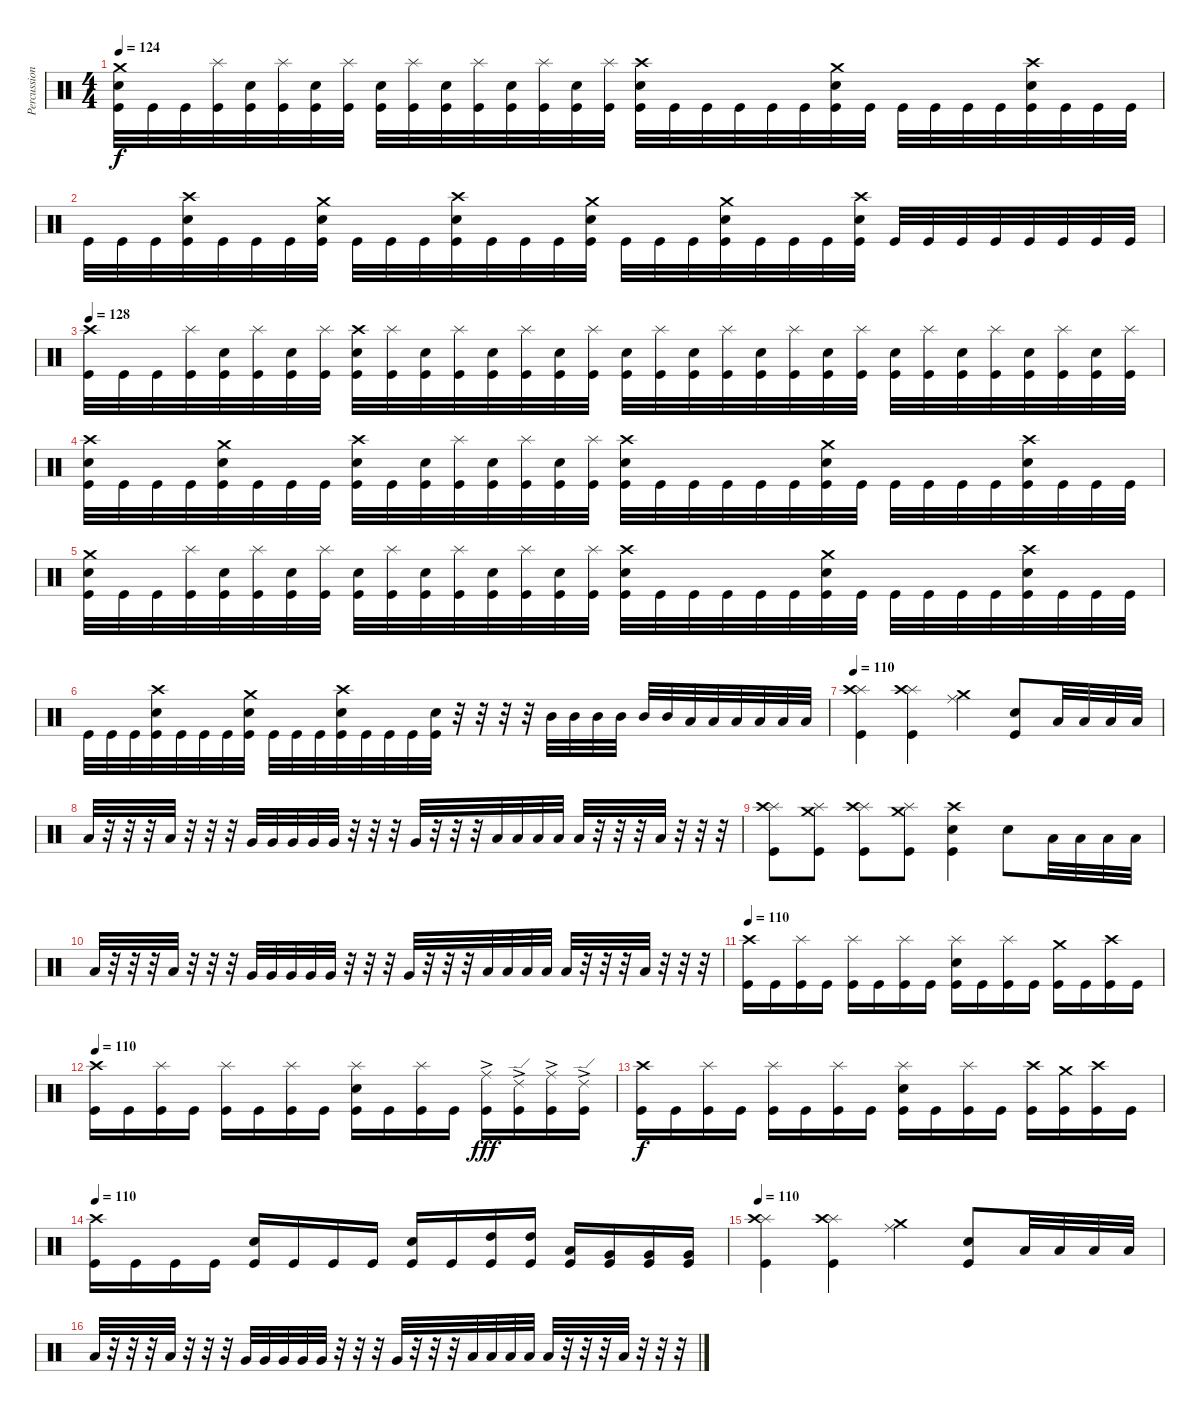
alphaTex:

\track ("Percussion" "Percussion") {instrument percussion}
\staff {score}
\articulation defaults
\ts (4 4)
\tempo 124
\clef neutral
\ks c
("Crash medium (hit)" "Electric Snare (hit)" "Kick (hit)").32{dy f} "Kick (hit)".32 "Kick (hit)".32 ("Splash (hit)" "Kick (hit)").32 ("Electric Snare (hit)" "Kick (hit)").32 ("Splash (hit)" "Kick (hit)").32 ("Electric Snare (hit)" "Kick (hit)").32 ("Splash (hit)" "Kick (hit)").32 ("Electric Snare (hit)" "Kick (hit)").32 ("Splash (hit)" "Kick (hit)").32 ("Electric Snare (hit)" "Kick (hit)").32 ("Splash (hit)" "Kick (hit)").32 ("Electric Snare (hit)" "Kick (hit)").32 ("Splash (hit)" "Kick (hit)").32 ("Electric Snare (hit)" "Kick (hit)").32 ("Splash (hit)" "Kick (hit)").32 ("Crash high (hit)" "Electric Snare (hit)" "Kick (hit)").32 "Kick (hit)".32 "Kick (hit)".32 "Kick (hit)".32 "Kick (hit)".32 "Kick (hit)".32 ("Crash medium (hit)" "Electric Snare (hit)" "Kick (hit)").32 "Kick (hit)".32 "Kick (hit)".32 "Kick (hit)".32 "Kick (hit)".32 "Kick (hit)".32 ("Crash high (hit)" "Electric Snare (hit)" "Kick (hit)").32 "Kick (hit)".32 "Kick (hit)".32 "Kick (hit)".32 |
"Kick (hit)".32 "Kick (hit)".32 "Kick (hit)".32 ("Crash high (hit)" "Electric Snare (hit)" "Kick (hit)").32 "Kick (hit)".32 "Kick (hit)".32 "Kick (hit)".32 ("Crash medium (hit)" "Electric Snare (hit)" "Kick (hit)").32 "Kick (hit)".32 "Kick (hit)".32 "Kick (hit)".32 ("Crash high (hit)" "Electric Snare (hit)" "Kick (hit)").32 "Kick (hit)".32 "Kick (hit)".32 "Kick (hit)".32 ("Crash medium (hit)" "Electric Snare (hit)" "Kick (hit)").32 "Kick (hit)".32 "Kick (hit)".32 "Kick (hit)".32 ("Crash medium (hit)" "Electric Snare (hit)" "Kick (hit)").32 "Kick (hit)".32 "Kick (hit)".32 "Kick (hit)".32 ("Crash high (hit)" "Electric Snare (hit)" "Kick (hit)").32 "Kick (hit)".32 "Kick (hit)".32 "Kick (hit)".32 "Kick (hit)".32 "Kick (hit)".32 "Kick (hit)".32 "Kick (hit)".32 "Kick (hit)".32 |
\tempo 128
("Crash high (hit)" "Kick (hit)").32 "Kick (hit)".32 "Kick (hit)".32 ("Splash (hit)" "Kick (hit)").32 ("Electric Snare (hit)" "Kick (hit)").32 ("Splash (hit)" "Kick (hit)").32 ("Electric Snare (hit)" "Kick (hit)").32 ("Splash (hit)" "Kick (hit)").32 ("Crash high (hit)" "Electric Snare (hit)" "Kick (hit)").32 ("Splash (hit)" "Kick (hit)").32 ("Electric Snare (hit)" "Kick (hit)").32 ("Splash (hit)" "Kick (hit)").32 ("Electric Snare (hit)" "Kick (hit)").32 ("Splash (hit)" "Kick (hit)").32 ("Electric Snare (hit)" "Kick (hit)").32 ("Splash (hit)" "Kick (hit)").32 ("Electric Snare (hit)" "Kick (hit)").32 ("Splash (hit)" "Kick (hit)").32 ("Electric Snare (hit)" "Kick (hit)").32 ("Splash (hit)" "Kick (hit)").32 ("Electric Snare (hit)" "Kick (hit)").32 ("Splash (hit)" "Kick (hit)").32 ("Electric Snare (hit)" "Kick (hit)").32 ("Splash (hit)" "Kick (hit)").32 ("Electric Snare (hit)" "Kick (hit)").32 ("Splash (hit)" "Kick (hit)").32 ("Electric Snare (hit)" "Kick (hit)").32 ("Splash (hit)" "Kick (hit)").32 ("Electric Snare (hit)" "Kick (hit)").32 ("Splash (hit)" "Kick (hit)").32 ("Electric Snare (hit)" "Kick (hit)").32 ("Splash (hit)" "Kick (hit)").32 |
("Crash high (hit)" "Electric Snare (hit)" "Kick (hit)").32 "Kick (hit)".32 "Kick (hit)".32 "Kick (hit)".32 ("Crash medium (hit)" "Electric Snare (hit)" "Kick (hit)").32 "Kick (hit)".32 "Kick (hit)".32 "Kick (hit)".32 ("Crash high (hit)" "Electric Snare (hit)" "Kick (hit)").32 "Kick (hit)".32 ("Electric Snare (hit)" "Kick (hit)").32 ("Splash (hit)" "Kick (hit)").32 ("Electric Snare (hit)" "Kick (hit)").32 ("Splash (hit)" "Kick (hit)").32 ("Electric Snare (hit)" "Kick (hit)").32 ("Splash (hit)" "Kick (hit)").32 ("Crash high (hit)" "Electric Snare (hit)" "Kick (hit)").32 "Kick (hit)".32 "Kick (hit)".32 "Kick (hit)".32 "Kick (hit)".32 "Kick (hit)".32 ("Crash medium (hit)" "Electric Snare (hit)" "Kick (hit)").32 "Kick (hit)".32 "Kick (hit)".32 "Kick (hit)".32 "Kick (hit)".32 "Kick (hit)".32 ("Crash high (hit)" "Electric Snare (hit)" "Kick (hit)").32 "Kick (hit)".32 "Kick (hit)".32 "Kick (hit)".32 |
("Crash medium (hit)" "Electric Snare (hit)" "Kick (hit)").32 "Kick (hit)".32 "Kick (hit)".32 ("Splash (hit)" "Kick (hit)").32 ("Electric Snare (hit)" "Kick (hit)").32 ("Splash (hit)" "Kick (hit)").32 ("Electric Snare (hit)" "Kick (hit)").32 ("Splash (hit)" "Kick (hit)").32 ("Electric Snare (hit)" "Kick (hit)").32 ("Splash (hit)" "Kick (hit)").32 ("Electric Snare (hit)" "Kick (hit)").32 ("Splash (hit)" "Kick (hit)").32 ("Electric Snare (hit)" "Kick (hit)").32 ("Splash (hit)" "Kick (hit)").32 ("Electric Snare (hit)" "Kick (hit)").32 ("Splash (hit)" "Kick (hit)").32 ("Crash high (hit)" "Electric Snare (hit)" "Kick (hit)").32 "Kick (hit)".32 "Kick (hit)".32 "Kick (hit)".32 "Kick (hit)".32 "Kick (hit)".32 ("Crash medium (hit)" "Electric Snare (hit)" "Kick (hit)").32 "Kick (hit)".32 "Kick (hit)".32 "Kick (hit)".32 "Kick (hit)".32 "Kick (hit)".32 ("Crash high (hit)" "Electric Snare (hit)" "Kick (hit)").32 "Kick (hit)".32 "Kick (hit)".32 "Kick (hit)".32 |
"Kick (hit)".32 "Kick (hit)".32 "Kick (hit)".32 ("Crash high (hit)" "Electric Snare (hit)" "Kick (hit)").32 "Kick (hit)".32 "Kick (hit)".32 "Kick (hit)".32 ("Crash medium (hit)" "Electric Snare (hit)" "Kick (hit)").32 "Kick (hit)".32 "Kick (hit)".32 "Kick (hit)".32 ("Crash high (hit)" "Electric Snare (hit)" "Kick (hit)").32 "Kick (hit)".32 "Kick (hit)".32 "Kick (hit)".32 ("Electric Snare (hit)" "Kick (hit)").32 r.32 r.32 r.32 r.32 "Mid Tom (hit)".32 "Mid Tom (hit)".32 "Mid Tom (hit)".32 "Mid Tom (hit)".32 "Mid Tom (hit)".32 "Mid Tom (hit)".32 "Low Tom (hit)".32 "Low Tom (hit)".32 "Low Tom (hit)".32 "Low Tom (hit)".32 "Low Tom (hit)".32 "Low Tom (hit)".32 |
\tempo 110
("Splash (hit)" "Crash high (hit)" "Kick (hit)").4 ("Splash (hit)" "Crash high (hit)" "Kick (hit)").4 ("Crash medium (hit)" "Ride (middle)").4 ("Electric Snare (hit)" "Kick (hit)").8 "Low Tom (hit)".32 "Low Tom (hit)".32 "Low Tom (hit)".32 "Low Tom (hit)".32 |
"Low Tom (hit)".32 r.32 r.32 r.32 "Low Tom (hit)".32 r.32 r.32 r.32 "Very Low Tom (hit)".32 "Very Low Tom (hit)".32 "Very Low Tom (hit)".32 "Very Low Tom (hit)".32 "Very Low Tom (hit)".32 r.32 r.32 r.32 "Very Low Tom (hit)".32 r.32 r.32 r.32 "Low Floor Tom (hit)".32 "Low Floor Tom (hit)".32 "Low Floor Tom (hit)".32 "Low Floor Tom (hit)".32 "Low Floor Tom (hit)".32 r.32 r.32 r.32 "Low Floor Tom (hit)".32 r.32 r.32 r.32 |
("Splash (hit)" "Crash high (hit)" "Kick (hit)").8 ("Crash medium (hit)" "Splash (hit)" "Kick (hit)").8 ("Splash (hit)" "Crash high (hit)" "Kick (hit)").8 ("Crash medium (hit)" "Splash (hit)" "Kick (hit)").8 ("Crash high (hit)" "Electric Snare (hit)" "Kick (hit)").4 "Electric Snare (hit)".8 "Low Tom (hit)".32 "Low Tom (hit)".32 "Low Tom (hit)".32 "Low Tom (hit)".32 |
"Low Tom (hit)".32 r.32 r.32 r.32 "Low Tom (hit)".32 r.32 r.32 r.32 "Very Low Tom (hit)".32 "Very Low Tom (hit)".32 "Very Low Tom (hit)".32 "Very Low Tom (hit)".32 "Very Low Tom (hit)".32 r.32 r.32 r.32 "Very Low Tom (hit)".32 r.32 r.32 r.32 "Low Floor Tom (hit)".32 "Low Floor Tom (hit)".32 "Low Floor Tom (hit)".32 "Low Floor Tom (hit)".32 "Low Floor Tom (hit)".32 r.32 r.32 r.32 "Low Floor Tom (hit)".32 r.32 r.32 r.32 |
\tempo 110
("Crash high (hit)" "Kick (hit)").16 "Kick (hit)".16 ("Splash (hit)" "Kick (hit)").16 "Kick (hit)".16 ("Splash (hit)" "Kick (hit)").16 "Kick (hit)".16 ("Splash (hit)" "Kick (hit)").16 "Kick (hit)".16 ("Splash (hit)" "Electric Snare (hit)" "Kick (hit)").16 "Kick (hit)".16 ("Splash (hit)" "Kick (hit)").16 "Kick (hit)".16 ("Crash medium (hit)" "Kick (hit)").16 "Kick (hit)".16 ("Crash high (hit)" "Kick (hit)").16 "Kick (hit)".16 |
\tempo 110
("Crash high (hit)" "Kick (hit)").16 "Kick (hit)".16 ("Splash (hit)" "Kick (hit)").16 "Kick (hit)".16 ("Splash (hit)" "Kick (hit)").16 "Kick (hit)".16 ("Splash (hit)" "Kick (hit)").16 "Kick (hit)".16 ("Splash (hit)" "Electric Snare (hit)" "Kick (hit)").16 "Kick (hit)".16 ("Splash (hit)" "Kick (hit)").16 "Kick (hit)".16 ("Ride (middle)"{ac} "Kick (hit)").16{dy fff} ("Ride (edge) 2"{ac} "Kick (hit)").16 ("Ride (middle)"{ac} "Kick (hit)").16 ("Ride (edge) 2"{ac} "Kick (hit)").16 |
("Crash high (hit)" "Kick (hit)").16{dy f} "Kick (hit)".16 ("Splash (hit)" "Kick (hit)").16 "Kick (hit)".16 ("Splash (hit)" "Kick (hit)").16 "Kick (hit)".16 ("Splash (hit)" "Kick (hit)").16 "Kick (hit)".16 ("Splash (hit)" "Electric Snare (hit)" "Kick (hit)").16 "Kick (hit)".16 ("Splash (hit)" "Kick (hit)").16 "Kick (hit)".16 ("Crash high (hit)" "Kick (hit)").16 ("Crash medium (hit)" "Kick (hit)").16 ("Crash high (hit)" "Kick (hit)").16 "Kick (hit)".16 |
\tempo 110
("Crash high (hit)" "Kick (hit)").16 "Kick (hit)".16 "Kick (hit)".16 "Kick (hit)".16 ("Electric Snare (hit)" "Kick (hit)").16 "Kick (hit)".16 "Kick (hit)".16 "Kick (hit)".16 ("Electric Snare (hit)" "Kick (hit)").16 "Kick (hit)".16 ("High Tom (hit)" "Kick (hit)").16 ("High Tom (hit)" "Kick (hit)").16 ("Low Tom (hit)" "Kick (hit)").16 ("Very Low Tom (hit)" "Kick (hit)").16 ("Very Low Tom (hit)" "Kick (hit)").16 ("Very Low Tom (hit)" "Kick (hit)").16 |
\tempo 110
("Splash (hit)" "Crash high (hit)" "Kick (hit)").4 ("Splash (hit)" "Crash high (hit)" "Kick (hit)").4 ("Crash medium (hit)" "Ride (middle)").4 ("Electric Snare (hit)" "Kick (hit)").8 "Low Tom (hit)".32 "Low Tom (hit)".32 "Low Tom (hit)".32 "Low Tom (hit)".32 |
"Low Tom (hit)".32 r.32 r.32 r.32 "Low Tom (hit)".32 r.32 r.32 r.32 "Very Low Tom (hit)".32 "Very Low Tom (hit)".32 "Very Low Tom (hit)".32 "Very Low Tom (hit)".32 "Very Low Tom (hit)".32 r.32 r.32 r.32 "Very Low Tom (hit)".32 r.32 r.32 r.32 "Low Floor Tom (hit)".32 "Low Floor Tom (hit)".32 "Low Floor Tom (hit)".32 "Low Floor Tom (hit)".32 "Low Floor Tom (hit)".32 r.32 r.32 r.32 "Low Floor Tom (hit)".32 r.32 r.32 r.32
